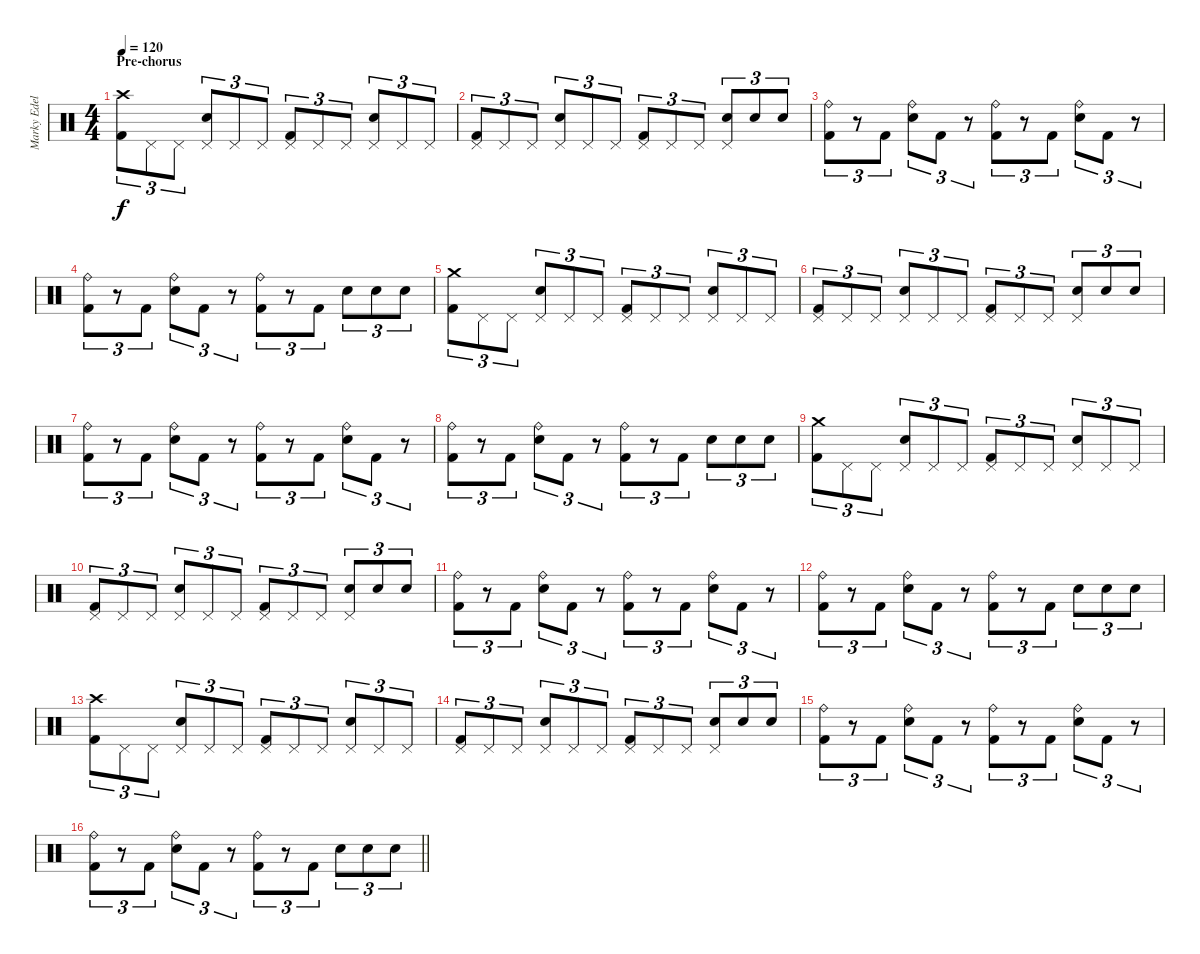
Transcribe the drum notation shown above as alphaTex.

\track ("Marky Edelmann" "Marky Edel") {instrument percussion}
\staff {score}
\articulation defaults
\ts (4 4)
\section ("" "Pre-chorus")
\tempo 120
\clef neutral
\ks c
("Crash high (hit)" "Kick (hit) 2").8{tu (3 2) dy f} "Pedal Hi-Hat (hit)".8{tu (3 2)} "Pedal Hi-Hat (hit)".8{tu (3 2)} ("Pedal Hi-Hat (hit)" "Snare (hit) 2").8{tu (3 2)} "Pedal Hi-Hat (hit)".8{tu (3 2)} "Pedal Hi-Hat (hit)".8{tu (3 2)} ("Pedal Hi-Hat (hit)" "Kick (hit) 2").8{tu (3 2)} "Pedal Hi-Hat (hit)".8{tu (3 2)} "Pedal Hi-Hat (hit)".8{tu (3 2)} ("Pedal Hi-Hat (hit)" "Snare (hit) 2").8{tu (3 2)} "Pedal Hi-Hat (hit)".8{tu (3 2)} "Pedal Hi-Hat (hit)".8{tu (3 2)} |
("Pedal Hi-Hat (hit)" "Kick (hit) 2").8{tu (3 2)} "Pedal Hi-Hat (hit)".8{tu (3 2)} "Pedal Hi-Hat (hit)".8{tu (3 2)} ("Pedal Hi-Hat (hit)" "Snare (hit) 2").8{tu (3 2)} "Pedal Hi-Hat (hit)".8{tu (3 2)} "Pedal Hi-Hat (hit)".8{tu (3 2)} ("Pedal Hi-Hat (hit)" "Kick (hit) 2").8{tu (3 2)} "Pedal Hi-Hat (hit)".8{tu (3 2)} "Pedal Hi-Hat (hit)".8{tu (3 2)} ("Pedal Hi-Hat (hit)" "Snare (hit) 2").8{tu (3 2)} "Snare (hit) 2".8{tu (3 2)} "Snare (hit) 2".8{tu (3 2)} |
("Ride (bell)" "Kick (hit) 2").8{tu (3 2)} r.8{tu (3 2)} "Kick (hit) 2".8{tu (3 2)} ("Ride (bell)" "Snare (hit) 2").8{tu (3 2)} "Kick (hit) 2".8{tu (3 2)} r.8{tu (3 2)} ("Ride (bell)" "Kick (hit) 2").8{tu (3 2)} r.8{tu (3 2)} "Kick (hit) 2".8{tu (3 2)} ("Ride (bell)" "Snare (hit) 2").8{tu (3 2)} "Kick (hit) 2".8{tu (3 2)} r.8{tu (3 2)} |
("Ride (bell)" "Kick (hit) 2").8{tu (3 2)} r.8{tu (3 2)} "Kick (hit) 2".8{tu (3 2)} ("Ride (bell)" "Snare (hit) 2").8{tu (3 2)} "Kick (hit) 2".8{tu (3 2)} r.8{tu (3 2)} ("Ride (bell)" "Kick (hit) 2").8{tu (3 2)} r.8{tu (3 2)} "Kick (hit) 2".8{tu (3 2)} "Snare (hit) 2".8{tu (3 2)} "Snare (hit) 2".8{tu (3 2)} "Snare (hit) 2".8{tu (3 2)} |
("Crash medium (hit)" "Kick (hit) 2").8{tu (3 2)} "Pedal Hi-Hat (hit)".8{tu (3 2)} "Pedal Hi-Hat (hit)".8{tu (3 2)} ("Pedal Hi-Hat (hit)" "Snare (hit) 2").8{tu (3 2)} "Pedal Hi-Hat (hit)".8{tu (3 2)} "Pedal Hi-Hat (hit)".8{tu (3 2)} ("Pedal Hi-Hat (hit)" "Kick (hit) 2").8{tu (3 2)} "Pedal Hi-Hat (hit)".8{tu (3 2)} "Pedal Hi-Hat (hit)".8{tu (3 2)} ("Pedal Hi-Hat (hit)" "Snare (hit) 2").8{tu (3 2)} "Pedal Hi-Hat (hit)".8{tu (3 2)} "Pedal Hi-Hat (hit)".8{tu (3 2)} |
("Pedal Hi-Hat (hit)" "Kick (hit) 2").8{tu (3 2)} "Pedal Hi-Hat (hit)".8{tu (3 2)} "Pedal Hi-Hat (hit)".8{tu (3 2)} ("Pedal Hi-Hat (hit)" "Snare (hit) 2").8{tu (3 2)} "Pedal Hi-Hat (hit)".8{tu (3 2)} "Pedal Hi-Hat (hit)".8{tu (3 2)} ("Pedal Hi-Hat (hit)" "Kick (hit) 2").8{tu (3 2)} "Pedal Hi-Hat (hit)".8{tu (3 2)} "Pedal Hi-Hat (hit)".8{tu (3 2)} ("Pedal Hi-Hat (hit)" "Snare (hit) 2").8{tu (3 2)} "Snare (hit) 2".8{tu (3 2)} "Snare (hit) 2".8{tu (3 2)} |
("Ride (bell)" "Kick (hit) 2").8{tu (3 2)} r.8{tu (3 2)} "Kick (hit) 2".8{tu (3 2)} ("Ride (bell)" "Snare (hit) 2").8{tu (3 2)} "Kick (hit) 2".8{tu (3 2)} r.8{tu (3 2)} ("Ride (bell)" "Kick (hit) 2").8{tu (3 2)} r.8{tu (3 2)} "Kick (hit) 2".8{tu (3 2)} ("Ride (bell)" "Snare (hit) 2").8{tu (3 2)} "Kick (hit) 2".8{tu (3 2)} r.8{tu (3 2)} |
("Ride (bell)" "Kick (hit) 2").8{tu (3 2)} r.8{tu (3 2)} "Kick (hit) 2".8{tu (3 2)} ("Ride (bell)" "Snare (hit) 2").8{tu (3 2)} "Kick (hit) 2".8{tu (3 2)} r.8{tu (3 2)} ("Ride (bell)" "Kick (hit) 2").8{tu (3 2)} r.8{tu (3 2)} "Kick (hit) 2".8{tu (3 2)} "Snare (hit) 2".8{tu (3 2)} "Snare (hit) 2".8{tu (3 2)} "Snare (hit) 2".8{tu (3 2)} |
("Crash medium (hit)" "Kick (hit) 2").8{tu (3 2)} "Pedal Hi-Hat (hit)".8{tu (3 2)} "Pedal Hi-Hat (hit)".8{tu (3 2)} ("Pedal Hi-Hat (hit)" "Snare (hit) 2").8{tu (3 2)} "Pedal Hi-Hat (hit)".8{tu (3 2)} "Pedal Hi-Hat (hit)".8{tu (3 2)} ("Pedal Hi-Hat (hit)" "Kick (hit) 2").8{tu (3 2)} "Pedal Hi-Hat (hit)".8{tu (3 2)} "Pedal Hi-Hat (hit)".8{tu (3 2)} ("Pedal Hi-Hat (hit)" "Snare (hit) 2").8{tu (3 2)} "Pedal Hi-Hat (hit)".8{tu (3 2)} "Pedal Hi-Hat (hit)".8{tu (3 2)} |
("Pedal Hi-Hat (hit)" "Kick (hit) 2").8{tu (3 2)} "Pedal Hi-Hat (hit)".8{tu (3 2)} "Pedal Hi-Hat (hit)".8{tu (3 2)} ("Pedal Hi-Hat (hit)" "Snare (hit) 2").8{tu (3 2)} "Pedal Hi-Hat (hit)".8{tu (3 2)} "Pedal Hi-Hat (hit)".8{tu (3 2)} ("Pedal Hi-Hat (hit)" "Kick (hit) 2").8{tu (3 2)} "Pedal Hi-Hat (hit)".8{tu (3 2)} "Pedal Hi-Hat (hit)".8{tu (3 2)} ("Pedal Hi-Hat (hit)" "Snare (hit) 2").8{tu (3 2)} "Snare (hit) 2".8{tu (3 2)} "Snare (hit) 2".8{tu (3 2)} |
("Ride (bell)" "Kick (hit) 2").8{tu (3 2)} r.8{tu (3 2)} "Kick (hit) 2".8{tu (3 2)} ("Ride (bell)" "Snare (hit) 2").8{tu (3 2)} "Kick (hit) 2".8{tu (3 2)} r.8{tu (3 2)} ("Ride (bell)" "Kick (hit) 2").8{tu (3 2)} r.8{tu (3 2)} "Kick (hit) 2".8{tu (3 2)} ("Ride (bell)" "Snare (hit) 2").8{tu (3 2)} "Kick (hit) 2".8{tu (3 2)} r.8{tu (3 2)} |
("Ride (bell)" "Kick (hit) 2").8{tu (3 2)} r.8{tu (3 2)} "Kick (hit) 2".8{tu (3 2)} ("Ride (bell)" "Snare (hit) 2").8{tu (3 2)} "Kick (hit) 2".8{tu (3 2)} r.8{tu (3 2)} ("Ride (bell)" "Kick (hit) 2").8{tu (3 2)} r.8{tu (3 2)} "Kick (hit) 2".8{tu (3 2)} "Snare (hit) 2".8{tu (3 2)} "Snare (hit) 2".8{tu (3 2)} "Snare (hit) 2".8{tu (3 2)} |
("Crash high (hit)" "Kick (hit) 2").8{tu (3 2)} "Pedal Hi-Hat (hit)".8{tu (3 2)} "Pedal Hi-Hat (hit)".8{tu (3 2)} ("Pedal Hi-Hat (hit)" "Snare (hit) 2").8{tu (3 2)} "Pedal Hi-Hat (hit)".8{tu (3 2)} "Pedal Hi-Hat (hit)".8{tu (3 2)} ("Pedal Hi-Hat (hit)" "Kick (hit) 2").8{tu (3 2)} "Pedal Hi-Hat (hit)".8{tu (3 2)} "Pedal Hi-Hat (hit)".8{tu (3 2)} ("Pedal Hi-Hat (hit)" "Snare (hit) 2").8{tu (3 2)} "Pedal Hi-Hat (hit)".8{tu (3 2)} "Pedal Hi-Hat (hit)".8{tu (3 2)} |
("Pedal Hi-Hat (hit)" "Kick (hit) 2").8{tu (3 2)} "Pedal Hi-Hat (hit)".8{tu (3 2)} "Pedal Hi-Hat (hit)".8{tu (3 2)} ("Pedal Hi-Hat (hit)" "Snare (hit) 2").8{tu (3 2)} "Pedal Hi-Hat (hit)".8{tu (3 2)} "Pedal Hi-Hat (hit)".8{tu (3 2)} ("Pedal Hi-Hat (hit)" "Kick (hit) 2").8{tu (3 2)} "Pedal Hi-Hat (hit)".8{tu (3 2)} "Pedal Hi-Hat (hit)".8{tu (3 2)} ("Pedal Hi-Hat (hit)" "Snare (hit) 2").8{tu (3 2)} "Snare (hit) 2".8{tu (3 2)} "Snare (hit) 2".8{tu (3 2)} |
("Ride (bell)" "Kick (hit) 2").8{tu (3 2)} r.8{tu (3 2)} "Kick (hit) 2".8{tu (3 2)} ("Ride (bell)" "Snare (hit) 2").8{tu (3 2)} "Kick (hit) 2".8{tu (3 2)} r.8{tu (3 2)} ("Ride (bell)" "Kick (hit) 2").8{tu (3 2)} r.8{tu (3 2)} "Kick (hit) 2".8{tu (3 2)} ("Ride (bell)" "Snare (hit) 2").8{tu (3 2)} "Kick (hit) 2".8{tu (3 2)} r.8{tu (3 2)} |
\barLineRight lightlight
("Ride (bell)" "Kick (hit) 2").8{tu (3 2)} r.8{tu (3 2)} "Kick (hit) 2".8{tu (3 2)} ("Ride (bell)" "Snare (hit) 2").8{tu (3 2)} "Kick (hit) 2".8{tu (3 2)} r.8{tu (3 2)} ("Ride (bell)" "Kick (hit) 2").8{tu (3 2)} r.8{tu (3 2)} "Kick (hit) 2".8{tu (3 2)} "Snare (hit) 2".8{tu (3 2)} "Snare (hit) 2".8{tu (3 2)} "Snare (hit) 2".8{tu (3 2)}
